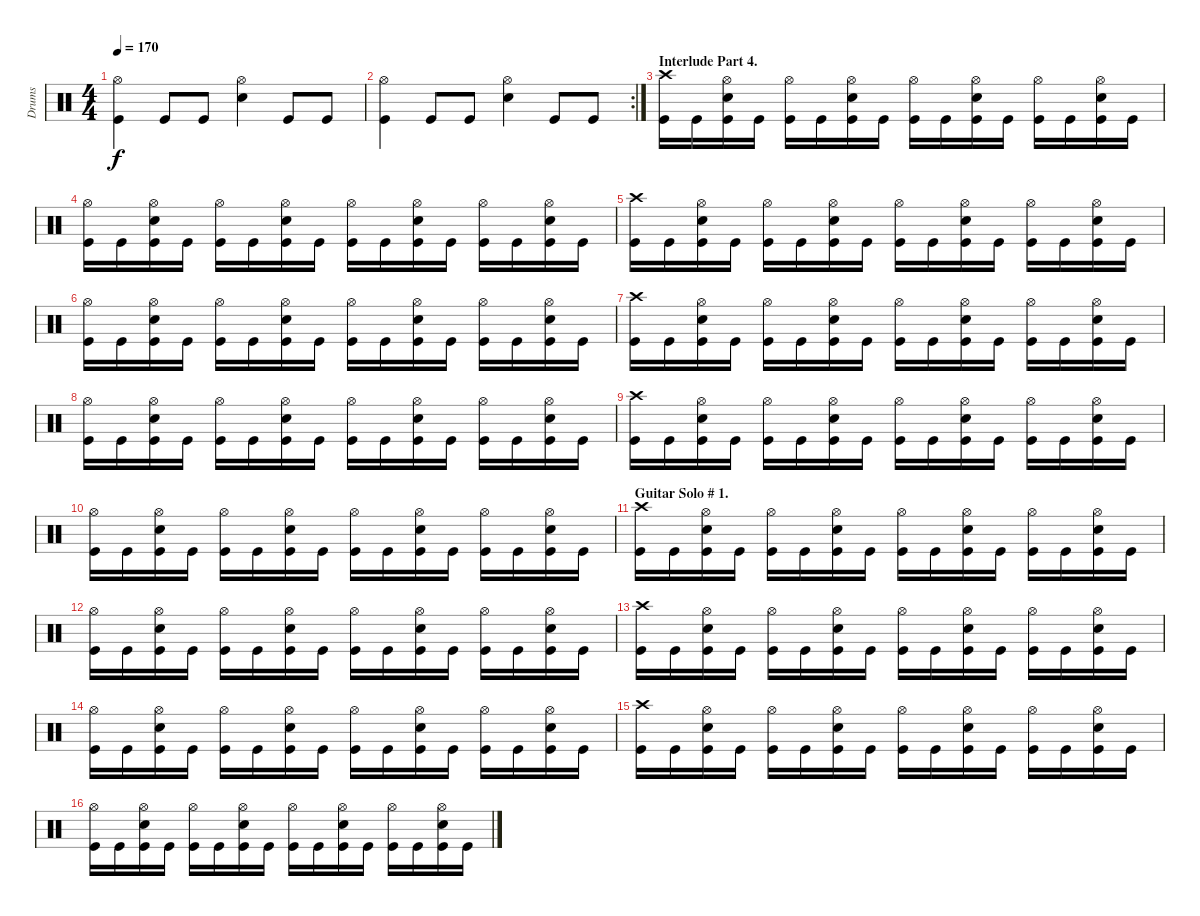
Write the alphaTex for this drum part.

\track ("Drums" "Drums") {instrument percussion}
\staff {score}
\articulation defaults
\ts (4 4)
\tempo 170
\clef neutral
\ks c
("Hi-Hat (open)" "Kick (hit)").4{dy f} "Kick (hit)".8 "Kick (hit)".8 ("Hi-Hat (open)" "Snare (hit) 2").4 "Kick (hit)".8 "Kick (hit)".8 |
\rc 2
("Hi-Hat (open)" "Kick (hit)").4 "Kick (hit)".8 "Kick (hit)".8 ("Hi-Hat (open)" "Snare (hit) 2").4 "Kick (hit)".8 "Kick (hit)".8 |
\section ("" "Interlude Part 4.")
("Crash high (hit)" "Kick (hit)").16 "Kick (hit)".16 ("Hi-Hat (open)" "Snare (hit) 2" "Kick (hit)").16 "Kick (hit)".16 ("Hi-Hat (open)" "Kick (hit)").16 "Kick (hit)".16 ("Hi-Hat (open)" "Snare (hit) 2" "Kick (hit)").16 "Kick (hit)".16 ("Hi-Hat (open)" "Kick (hit)").16 "Kick (hit)".16 ("Hi-Hat (open)" "Snare (hit) 2" "Kick (hit)").16 "Kick (hit)".16 ("Hi-Hat (open)" "Kick (hit)").16 "Kick (hit)".16 ("Hi-Hat (open)" "Snare (hit) 2" "Kick (hit)").16 "Kick (hit)".16 |
("Hi-Hat (open)" "Kick (hit)").16 "Kick (hit)".16 ("Hi-Hat (open)" "Snare (hit) 2" "Kick (hit)").16 "Kick (hit)".16 ("Hi-Hat (open)" "Kick (hit)").16 "Kick (hit)".16 ("Hi-Hat (open)" "Snare (hit) 2" "Kick (hit)").16 "Kick (hit)".16 ("Hi-Hat (open)" "Kick (hit)").16 "Kick (hit)".16 ("Hi-Hat (open)" "Snare (hit) 2" "Kick (hit)").16 "Kick (hit)".16 ("Hi-Hat (open)" "Kick (hit)").16 "Kick (hit)".16 ("Hi-Hat (open)" "Snare (hit) 2" "Kick (hit)").16 "Kick (hit)".16 |
("Crash high (hit)" "Kick (hit)").16 "Kick (hit)".16 ("Hi-Hat (open)" "Snare (hit) 2" "Kick (hit)").16 "Kick (hit)".16 ("Hi-Hat (open)" "Kick (hit)").16 "Kick (hit)".16 ("Hi-Hat (open)" "Snare (hit) 2" "Kick (hit)").16 "Kick (hit)".16 ("Hi-Hat (open)" "Kick (hit)").16 "Kick (hit)".16 ("Hi-Hat (open)" "Snare (hit) 2" "Kick (hit)").16 "Kick (hit)".16 ("Hi-Hat (open)" "Kick (hit)").16 "Kick (hit)".16 ("Hi-Hat (open)" "Snare (hit) 2" "Kick (hit)").16 "Kick (hit)".16 |
("Hi-Hat (open)" "Kick (hit)").16 "Kick (hit)".16 ("Hi-Hat (open)" "Snare (hit) 2" "Kick (hit)").16 "Kick (hit)".16 ("Hi-Hat (open)" "Kick (hit)").16 "Kick (hit)".16 ("Hi-Hat (open)" "Snare (hit) 2" "Kick (hit)").16 "Kick (hit)".16 ("Hi-Hat (open)" "Kick (hit)").16 "Kick (hit)".16 ("Hi-Hat (open)" "Snare (hit) 2" "Kick (hit)").16 "Kick (hit)".16 ("Hi-Hat (open)" "Kick (hit)").16 "Kick (hit)".16 ("Hi-Hat (open)" "Snare (hit) 2" "Kick (hit)").16 "Kick (hit)".16 |
("Crash high (hit)" "Kick (hit)").16 "Kick (hit)".16 ("Hi-Hat (open)" "Snare (hit) 2" "Kick (hit)").16 "Kick (hit)".16 ("Hi-Hat (open)" "Kick (hit)").16 "Kick (hit)".16 ("Hi-Hat (open)" "Snare (hit) 2" "Kick (hit)").16 "Kick (hit)".16 ("Hi-Hat (open)" "Kick (hit)").16 "Kick (hit)".16 ("Hi-Hat (open)" "Snare (hit) 2" "Kick (hit)").16 "Kick (hit)".16 ("Hi-Hat (open)" "Kick (hit)").16 "Kick (hit)".16 ("Hi-Hat (open)" "Snare (hit) 2" "Kick (hit)").16 "Kick (hit)".16 |
("Hi-Hat (open)" "Kick (hit)").16 "Kick (hit)".16 ("Hi-Hat (open)" "Snare (hit) 2" "Kick (hit)").16 "Kick (hit)".16 ("Hi-Hat (open)" "Kick (hit)").16 "Kick (hit)".16 ("Hi-Hat (open)" "Snare (hit) 2" "Kick (hit)").16 "Kick (hit)".16 ("Hi-Hat (open)" "Kick (hit)").16 "Kick (hit)".16 ("Hi-Hat (open)" "Snare (hit) 2" "Kick (hit)").16 "Kick (hit)".16 ("Hi-Hat (open)" "Kick (hit)").16 "Kick (hit)".16 ("Hi-Hat (open)" "Snare (hit) 2" "Kick (hit)").16 "Kick (hit)".16 |
("Crash high (hit)" "Kick (hit)").16 "Kick (hit)".16 ("Hi-Hat (open)" "Snare (hit) 2" "Kick (hit)").16 "Kick (hit)".16 ("Hi-Hat (open)" "Kick (hit)").16 "Kick (hit)".16 ("Hi-Hat (open)" "Snare (hit) 2" "Kick (hit)").16 "Kick (hit)".16 ("Hi-Hat (open)" "Kick (hit)").16 "Kick (hit)".16 ("Hi-Hat (open)" "Snare (hit) 2" "Kick (hit)").16 "Kick (hit)".16 ("Hi-Hat (open)" "Kick (hit)").16 "Kick (hit)".16 ("Hi-Hat (open)" "Snare (hit) 2" "Kick (hit)").16 "Kick (hit)".16 |
("Hi-Hat (open)" "Kick (hit)").16 "Kick (hit)".16 ("Hi-Hat (open)" "Snare (hit) 2" "Kick (hit)").16 "Kick (hit)".16 ("Hi-Hat (open)" "Kick (hit)").16 "Kick (hit)".16 ("Hi-Hat (open)" "Snare (hit) 2" "Kick (hit)").16 "Kick (hit)".16 ("Hi-Hat (open)" "Kick (hit)").16 "Kick (hit)".16 ("Hi-Hat (open)" "Snare (hit) 2" "Kick (hit)").16 "Kick (hit)".16 ("Hi-Hat (open)" "Kick (hit)").16 "Kick (hit)".16 ("Hi-Hat (open)" "Snare (hit) 2" "Kick (hit)").16 "Kick (hit)".16 |
\section ("" "Guitar Solo # 1.")
("Crash high (hit)" "Kick (hit)").16 "Kick (hit)".16 ("Hi-Hat (open)" "Snare (hit) 2" "Kick (hit)").16 "Kick (hit)".16 ("Hi-Hat (open)" "Kick (hit)").16 "Kick (hit)".16 ("Hi-Hat (open)" "Snare (hit) 2" "Kick (hit)").16 "Kick (hit)".16 ("Hi-Hat (open)" "Kick (hit)").16 "Kick (hit)".16 ("Hi-Hat (open)" "Snare (hit) 2" "Kick (hit)").16 "Kick (hit)".16 ("Hi-Hat (open)" "Kick (hit)").16 "Kick (hit)".16 ("Hi-Hat (open)" "Snare (hit) 2" "Kick (hit)").16 "Kick (hit)".16 |
("Hi-Hat (open)" "Kick (hit)").16 "Kick (hit)".16 ("Hi-Hat (open)" "Snare (hit) 2" "Kick (hit)").16 "Kick (hit)".16 ("Hi-Hat (open)" "Kick (hit)").16 "Kick (hit)".16 ("Hi-Hat (open)" "Snare (hit) 2" "Kick (hit)").16 "Kick (hit)".16 ("Hi-Hat (open)" "Kick (hit)").16 "Kick (hit)".16 ("Hi-Hat (open)" "Snare (hit) 2" "Kick (hit)").16 "Kick (hit)".16 ("Hi-Hat (open)" "Kick (hit)").16 "Kick (hit)".16 ("Hi-Hat (open)" "Snare (hit) 2" "Kick (hit)").16 "Kick (hit)".16 |
("Crash high (hit)" "Kick (hit)").16 "Kick (hit)".16 ("Hi-Hat (open)" "Snare (hit) 2" "Kick (hit)").16 "Kick (hit)".16 ("Hi-Hat (open)" "Kick (hit)").16 "Kick (hit)".16 ("Hi-Hat (open)" "Snare (hit) 2" "Kick (hit)").16 "Kick (hit)".16 ("Hi-Hat (open)" "Kick (hit)").16 "Kick (hit)".16 ("Hi-Hat (open)" "Snare (hit) 2" "Kick (hit)").16 "Kick (hit)".16 ("Hi-Hat (open)" "Kick (hit)").16 "Kick (hit)".16 ("Hi-Hat (open)" "Snare (hit) 2" "Kick (hit)").16 "Kick (hit)".16 |
("Hi-Hat (open)" "Kick (hit)").16 "Kick (hit)".16 ("Hi-Hat (open)" "Snare (hit) 2" "Kick (hit)").16 "Kick (hit)".16 ("Hi-Hat (open)" "Kick (hit)").16 "Kick (hit)".16 ("Hi-Hat (open)" "Snare (hit) 2" "Kick (hit)").16 "Kick (hit)".16 ("Hi-Hat (open)" "Kick (hit)").16 "Kick (hit)".16 ("Hi-Hat (open)" "Snare (hit) 2" "Kick (hit)").16 "Kick (hit)".16 ("Hi-Hat (open)" "Kick (hit)").16 "Kick (hit)".16 ("Hi-Hat (open)" "Snare (hit) 2" "Kick (hit)").16 "Kick (hit)".16 |
("Crash high (hit)" "Kick (hit)").16 "Kick (hit)".16 ("Hi-Hat (open)" "Snare (hit) 2" "Kick (hit)").16 "Kick (hit)".16 ("Hi-Hat (open)" "Kick (hit)").16 "Kick (hit)".16 ("Hi-Hat (open)" "Snare (hit) 2" "Kick (hit)").16 "Kick (hit)".16 ("Hi-Hat (open)" "Kick (hit)").16 "Kick (hit)".16 ("Hi-Hat (open)" "Snare (hit) 2" "Kick (hit)").16 "Kick (hit)".16 ("Hi-Hat (open)" "Kick (hit)").16 "Kick (hit)".16 ("Hi-Hat (open)" "Snare (hit) 2" "Kick (hit)").16 "Kick (hit)".16 |
("Hi-Hat (open)" "Kick (hit)").16 "Kick (hit)".16 ("Hi-Hat (open)" "Snare (hit) 2" "Kick (hit)").16 "Kick (hit)".16 ("Hi-Hat (open)" "Kick (hit)").16 "Kick (hit)".16 ("Hi-Hat (open)" "Snare (hit) 2" "Kick (hit)").16 "Kick (hit)".16 ("Hi-Hat (open)" "Kick (hit)").16 "Kick (hit)".16 ("Hi-Hat (open)" "Snare (hit) 2" "Kick (hit)").16 "Kick (hit)".16 ("Hi-Hat (open)" "Kick (hit)").16 "Kick (hit)".16 ("Hi-Hat (open)" "Snare (hit) 2" "Kick (hit)").16 "Kick (hit)".16
